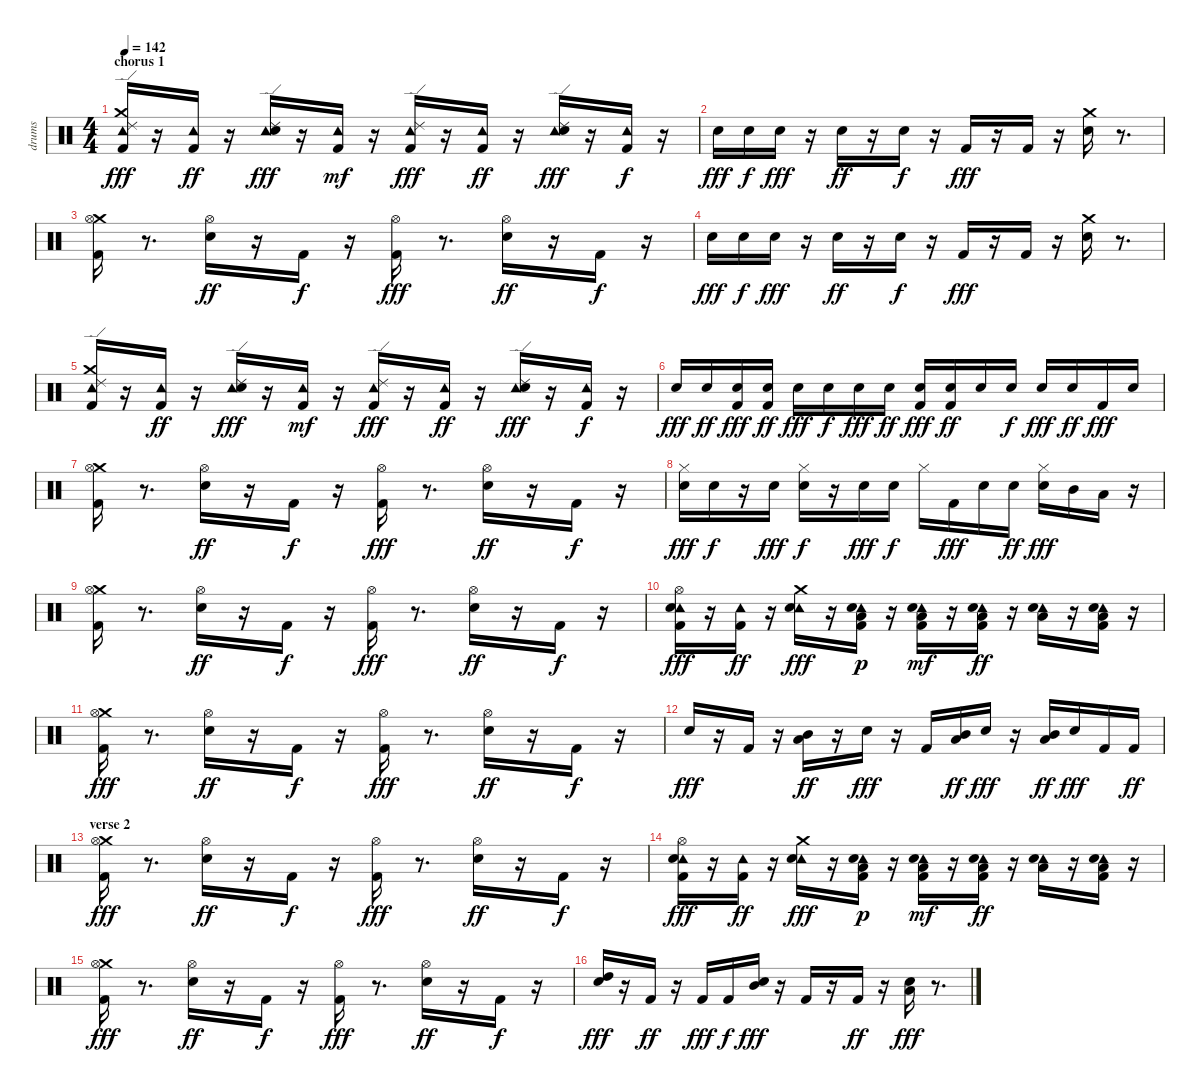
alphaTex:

\track ("drums" "drums") {instrument percussion}
\staff {score}
\articulation defaults
\ts (4 4)
\section ("" "chorus 1")
\tempo 142
\clef neutral
\ks c
("Tambourine (hit)" "Crash medium (hit)" "Ride (edge) 2" "Kick (hit) 2").16{dy fff} r.16 ("Tambourine (hit)" "Kick (hit) 2").16{dy ff} r.16 ("Tambourine (hit)" "Ride (edge) 2" "Snare (hit) 2").16{dy fff} r.16 ("Tambourine (hit)" "Kick (hit) 2").16{dy mf} r.16 ("Tambourine (hit)" "Ride (edge) 2" "Kick (hit) 2").16{dy fff} r.16 ("Tambourine (hit)" "Kick (hit) 2").16{dy ff} r.16 ("Tambourine (hit)" "Ride (edge) 2" "Snare (hit) 2").16{dy fff} r.16 ("Tambourine (hit)" "Kick (hit) 2").16{dy f} r.16 |
"Snare (hit) 2".16{dy fff} "Snare (hit) 2".16{dy f} "Snare (hit) 2".16{dy fff} r.16 "Snare (hit) 2".16{dy ff} r.16 "Snare (hit) 2".16{dy f} r.16 "Kick (hit) 2".16{dy fff} r.16 "Kick (hit) 2".16 r.16 ("Crash medium (hit)" "Snare (hit) 2").16 r.8{d} |
("Crash medium (hit)" "Hi-Hat (open)" "Kick (hit) 2").16 r.8{d} ("Hi-Hat (open)" "Snare (hit) 2").16{dy ff} r.16 "Kick (hit) 2".16{dy f} r.16 ("Hi-Hat (open)" "Kick (hit) 2").16{dy fff} r.8{d} ("Hi-Hat (open)" "Snare (hit) 2").16{dy ff} r.16 "Kick (hit) 2".16{dy f} r.16 |
"Snare (hit) 2".16{dy fff} "Snare (hit) 2".16{dy f} "Snare (hit) 2".16{dy fff} r.16 "Snare (hit) 2".16{dy ff} r.16 "Snare (hit) 2".16{dy f} r.16 "Kick (hit) 2".16{dy fff} r.16 "Kick (hit) 2".16 r.16 ("Crash medium (hit)" "Snare (hit) 2").16 r.8{d} |
("Tambourine (hit)" "Crash medium (hit)" "Ride (edge) 2" "Kick (hit) 2").16 r.16 ("Tambourine (hit)" "Kick (hit) 2").16{dy ff} r.16 ("Tambourine (hit)" "Ride (edge) 2" "Snare (hit) 2").16{dy fff} r.16 ("Tambourine (hit)" "Kick (hit) 2").16{dy mf} r.16 ("Tambourine (hit)" "Ride (edge) 2" "Kick (hit) 2").16{dy fff} r.16 ("Tambourine (hit)" "Kick (hit) 2").16{dy ff} r.16 ("Tambourine (hit)" "Ride (edge) 2" "Snare (hit) 2").16{dy fff} r.16 ("Tambourine (hit)" "Kick (hit) 2").16{dy f} r.16 |
"Snare (hit) 2".16{dy fff} "Snare (hit) 2".16{dy ff} ("Snare (hit) 2" "Kick (hit) 2").16{dy fff} ("Snare (hit) 2" "Kick (hit) 2").16{dy ff} "Snare (hit) 2".16{dy fff} "Snare (hit) 2".16{dy f} "Snare (hit) 2".16{dy fff} "Snare (hit) 2".16{dy ff} ("Snare (hit) 2" "Kick (hit) 2").16{dy fff} ("Snare (hit) 2" "Kick (hit) 2").16{dy ff} "Snare (hit) 2".16 "Snare (hit) 2".16{dy f} "Snare (hit) 2".16{dy fff} "Snare (hit) 2".16{dy ff} "Kick (hit) 2".16{dy fff} "Snare (hit) 2".16 |
("Crash medium (hit)" "Hi-Hat (open)" "Kick (hit) 2").16 r.8{d} ("Hi-Hat (open)" "Snare (hit) 2").16{dy ff} r.16 "Kick (hit) 2".16{dy f} r.16 ("Hi-Hat (open)" "Kick (hit) 2").16{dy fff} r.8{d} ("Hi-Hat (open)" "Snare (hit) 2").16{dy ff} r.16 "Kick (hit) 2".16{dy f} r.16 |
("Hi-Hat (closed)" "Snare (hit) 2").16{dy fff} "Snare (hit) 2".16{dy f} r.16 "Snare (hit) 2".16{dy fff} ("Hi-Hat (closed)" "Snare (hit) 2").16{dy f} r.16 "Snare (hit) 2".16{dy fff} "Snare (hit) 2".16{dy f} "Hi-Hat (closed)".16 "Kick (hit) 2".16{dy fff} "Snare (hit) 2".16 "Snare (hit) 2".16{dy ff} ("Hi-Hat (closed)" "Snare (hit) 2").16{dy fff} "Mid Tom (hit)".16 "Low Floor Tom (hit)".16 r.16 |
("Crash medium (hit)" "Hi-Hat (open)" "Kick (hit) 2").16 r.8{d} ("Hi-Hat (open)" "Snare (hit) 2").16{dy ff} r.16 "Kick (hit) 2".16{dy f} r.16 ("Hi-Hat (open)" "Kick (hit) 2").16{dy fff} r.8{d} ("Hi-Hat (open)" "Snare (hit) 2").16{dy ff} r.16 "Kick (hit) 2".16{dy f} r.16 |
("Tambourine (hit)" "Hi-Hat (open)" "Snare (hit) 2" "Kick (hit) 2").16{dy fff} r.16 ("Tambourine (hit)" "Kick (hit) 2").16{dy ff} r.16 ("Tambourine (hit)" "Crash medium (hit)" "Snare (hit) 2").16{dy fff} r.16 ("Tambourine (hit)" "Low Floor Tom (hit)" "Snare (hit) 2" "Kick (hit) 2").16{dy p} r.16 ("Tambourine (hit)" "Low Floor Tom (hit)" "Snare (hit) 2" "Kick (hit) 2").16{dy mf} r.16 ("Tambourine (hit)" "Low Floor Tom (hit)" "Snare (hit) 2" "Kick (hit) 2").16{dy ff} r.16 ("Tambourine (hit)" "Low Floor Tom (hit)" "Snare (hit) 2").16 r.16 ("Tambourine (hit)" "Low Floor Tom (hit)" "Snare (hit) 2" "Kick (hit) 2").16 r.16 |
("Crash medium (hit)" "Hi-Hat (open)" "Kick (hit) 2").16{dy fff} r.8{d} ("Hi-Hat (open)" "Snare (hit) 2").16{dy ff} r.16 "Kick (hit) 2".16{dy f} r.16 ("Hi-Hat (open)" "Kick (hit) 2").16{dy fff} r.8{d} ("Hi-Hat (open)" "Snare (hit) 2").16{dy ff} r.16 "Kick (hit) 2".16{dy f} r.16 |
"Snare (hit) 2".16{dy fff} r.16 "Kick (hit) 2".16 r.16 ("Mid Tom (hit)" "Low Floor Tom (hit)").16{dy ff} r.16 "Snare (hit) 2".16{dy fff} r.16 "Kick (hit) 2".16 ("Mid Tom (hit)" "Low Floor Tom (hit)").16{dy ff} "Snare (hit) 2".16{dy fff} r.16 ("Mid Tom (hit)" "Low Floor Tom (hit)").16{dy ff} "Snare (hit) 2".16{dy fff} "Kick (hit) 2".16 "Kick (hit) 2".16{dy ff} |
\section ("" "verse 2")
("Crash medium (hit)" "Hi-Hat (open)" "Kick (hit) 2").16{dy fff} r.8{d} ("Hi-Hat (open)" "Snare (hit) 2").16{dy ff} r.16 "Kick (hit) 2".16{dy f} r.16 ("Hi-Hat (open)" "Kick (hit) 2").16{dy fff} r.8{d} ("Hi-Hat (open)" "Snare (hit) 2").16{dy ff} r.16 "Kick (hit) 2".16{dy f} r.16 |
("Tambourine (hit)" "Hi-Hat (open)" "Snare (hit) 2" "Kick (hit) 2").16{dy fff} r.16 ("Tambourine (hit)" "Kick (hit) 2").16{dy ff} r.16 ("Tambourine (hit)" "Crash medium (hit)" "Snare (hit) 2").16{dy fff} r.16 ("Tambourine (hit)" "Low Floor Tom (hit)" "Snare (hit) 2" "Kick (hit) 2").16{dy p} r.16 ("Tambourine (hit)" "Low Floor Tom (hit)" "Snare (hit) 2" "Kick (hit) 2").16{dy mf} r.16 ("Tambourine (hit)" "Low Floor Tom (hit)" "Snare (hit) 2" "Kick (hit) 2").16{dy ff} r.16 ("Tambourine (hit)" "Low Floor Tom (hit)" "Snare (hit) 2").16 r.16 ("Tambourine (hit)" "Low Floor Tom (hit)" "Snare (hit) 2" "Kick (hit) 2").16 r.16 |
("Crash medium (hit)" "Hi-Hat (open)" "Kick (hit) 2").16{dy fff} r.8{d} ("Hi-Hat (open)" "Snare (hit) 2").16{dy ff} r.16 "Kick (hit) 2".16{dy f} r.16 ("Hi-Hat (open)" "Kick (hit) 2").16{dy fff} r.8{d} ("Hi-Hat (open)" "Snare (hit) 2").16{dy ff} r.16 "Kick (hit) 2".16{dy f} r.16 |
("High Tom (hit)" "Snare (hit) 2").16{dy fff} r.16 "Kick (hit) 2".16{dy ff} r.16 "Kick (hit) 2".16{dy fff} "Kick (hit) 2".16{dy f} ("Mid Tom (hit)" "Snare (hit) 2").16{dy fff} r.16 "Kick (hit) 2".16 r.16 "Kick (hit) 2".16{dy ff} r.16 ("Low Floor Tom (hit)" "Snare (hit) 2").16{dy fff} r.8{d}
